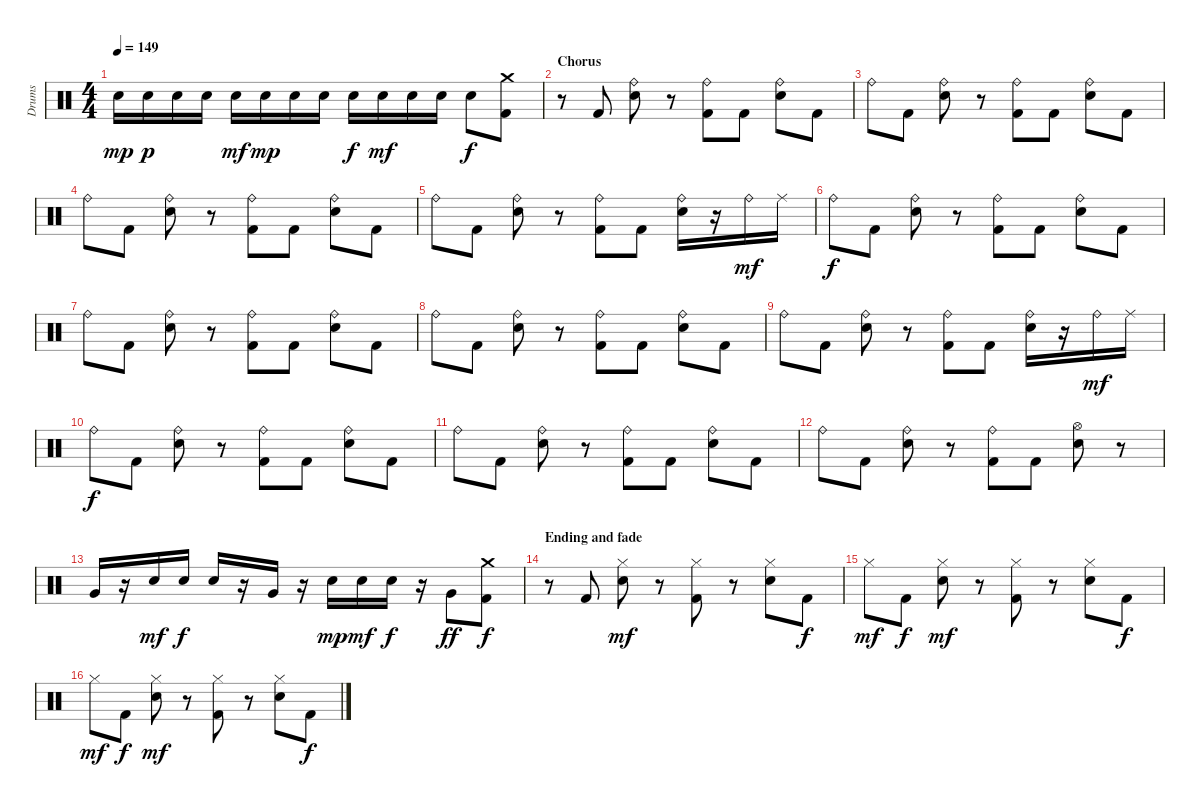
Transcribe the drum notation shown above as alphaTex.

\track ("Drums" "Drums") {instrument percussion}
\staff {score}
\articulation defaults
\ts (4 4)
\tempo 149
\clef neutral
\ks c "Snare (hit) 2".16{dy mp} "Snare (hit) 2".16{dy p} "Snare (hit) 2".16 "Snare (hit) 2".16 "Snare (hit) 2".16{dy mf} "Snare (hit) 2".16{dy mp} "Snare (hit) 2".16 "Snare (hit) 2".16 "Snare (hit) 2".16{dy f} "Snare (hit) 2".16{dy mf} "Snare (hit) 2".16 "Snare (hit) 2".16 "Snare (hit) 2".8{dy f}
("Crash medium (hit)" "Kick (hit) 2").8 |
\section ("" "Chorus")
r.8 "Kick (hit) 2".8 ("Ride (bell)" "Snare (hit) 2").8 r.8 ("Ride (bell)" "Kick (hit) 2").8 "Kick (hit) 2".8 ("Ride (bell)" "Snare (hit) 2").8 "Kick (hit) 2".8 |
"Ride (bell)".8 "Kick (hit) 2".8 ("Ride (bell)" "Snare (hit) 2").8 r.8 ("Ride (bell)" "Kick (hit) 2").8 "Kick (hit) 2".8 ("Ride (bell)" "Snare (hit) 2").8 "Kick (hit) 2".8 |
"Ride (bell)".8 "Kick (hit) 2".8 ("Ride (bell)" "Snare (hit) 2").8 r.8 ("Ride (bell)" "Kick (hit) 2").8 "Kick (hit) 2".8 ("Ride (bell)" "Snare (hit) 2").8 "Kick (hit) 2".8 |
"Ride (bell)".8 "Kick (hit) 2".8 ("Ride (bell)" "Snare (hit) 2").8 r.8 ("Ride (bell)" "Kick (hit) 2").8 "Kick (hit) 2".8 ("Ride (bell)" "Snare (hit) 2").16 r.16 "Ride (bell)".16{dy mf} "Ride (middle)".16 |
"Ride (bell)".8{dy f} "Kick (hit) 2".8 ("Ride (bell)" "Snare (hit) 2").8 r.8 ("Ride (bell)" "Kick (hit) 2").8 "Kick (hit) 2".8 ("Ride (bell)" "Snare (hit) 2").8 "Kick (hit) 2".8 |
"Ride (bell)".8 "Kick (hit) 2".8 ("Ride (bell)" "Snare (hit) 2").8 r.8 ("Ride (bell)" "Kick (hit) 2").8 "Kick (hit) 2".8 ("Ride (bell)" "Snare (hit) 2").8 "Kick (hit) 2".8 |
"Ride (bell)".8 "Kick (hit) 2".8 ("Ride (bell)" "Snare (hit) 2").8 r.8 ("Ride (bell)" "Kick (hit) 2").8 "Kick (hit) 2".8 ("Ride (bell)" "Snare (hit) 2").8 "Kick (hit) 2".8 |
"Ride (bell)".8 "Kick (hit) 2".8 ("Ride (bell)" "Snare (hit) 2").8 r.8 ("Ride (bell)" "Kick (hit) 2").8 "Kick (hit) 2".8 ("Ride (bell)" "Snare (hit) 2").16 r.16 "Ride (bell)".16{dy mf} "Ride (middle)".16 |
"Ride (bell)".8{dy f} "Kick (hit) 2".8 ("Ride (bell)" "Snare (hit) 2").8 r.8 ("Ride (bell)" "Kick (hit) 2").8 "Kick (hit) 2".8 ("Ride (bell)" "Snare (hit) 2").8 "Kick (hit) 2".8 |
"Ride (bell)".8 "Kick (hit) 2".8 ("Ride (bell)" "Snare (hit) 2").8 r.8 ("Ride (bell)" "Kick (hit) 2").8 "Kick (hit) 2".8 ("Ride (bell)" "Snare (hit) 2").8 "Kick (hit) 2".8 |
"Ride (bell)".8 "Kick (hit) 2".8 ("Ride (bell)" "Snare (hit) 2").8 r.8 ("Ride (bell)" "Kick (hit) 2").8 "Kick (hit) 2".8 ("Hi-Hat (open)" "Snare (hit) 2").8 r.8 |
"Very Low Tom (hit)".16 r.16 "Snare (hit) 2".16{dy mf} "Snare (hit) 2".16{dy f} "Snare (hit) 2".16 r.16 "Very Low Tom (hit)".16 r.16 "Snare (hit) 2".16{dy mp} "Snare (hit) 2".16{dy mf} "Snare (hit) 2".16{dy f} r.16 "Very Low Tom (hit)".8{dy ff} ("Crash medium (hit)" "Kick (hit) 2").8{dy f} |
\section ("" "Ending and fade")
r.8 "Kick (hit) 2".8 ("Hi-Hat (closed)" "Snare (hit) 2").8{dy mf} r.8 ("Hi-Hat (closed)" "Kick (hit) 2").8 r.8 ("Hi-Hat (closed)" "Snare (hit) 2").8 "Kick (hit) 2".8{dy f} |
"Hi-Hat (closed)".8{dy mf} "Kick (hit) 2".8{dy f} ("Hi-Hat (closed)" "Snare (hit) 2").8{dy mf} r.8 ("Hi-Hat (closed)" "Kick (hit) 2").8 r.8 ("Hi-Hat (closed)" "Snare (hit) 2").8 "Kick (hit) 2".8{dy f} |
"Hi-Hat (closed)".8{dy mf} "Kick (hit) 2".8{dy f} ("Hi-Hat (closed)" "Snare (hit) 2").8{dy mf} r.8 ("Hi-Hat (closed)" "Kick (hit) 2").8 r.8 ("Hi-Hat (closed)" "Snare (hit) 2").8 "Kick (hit) 2".8{dy f}
